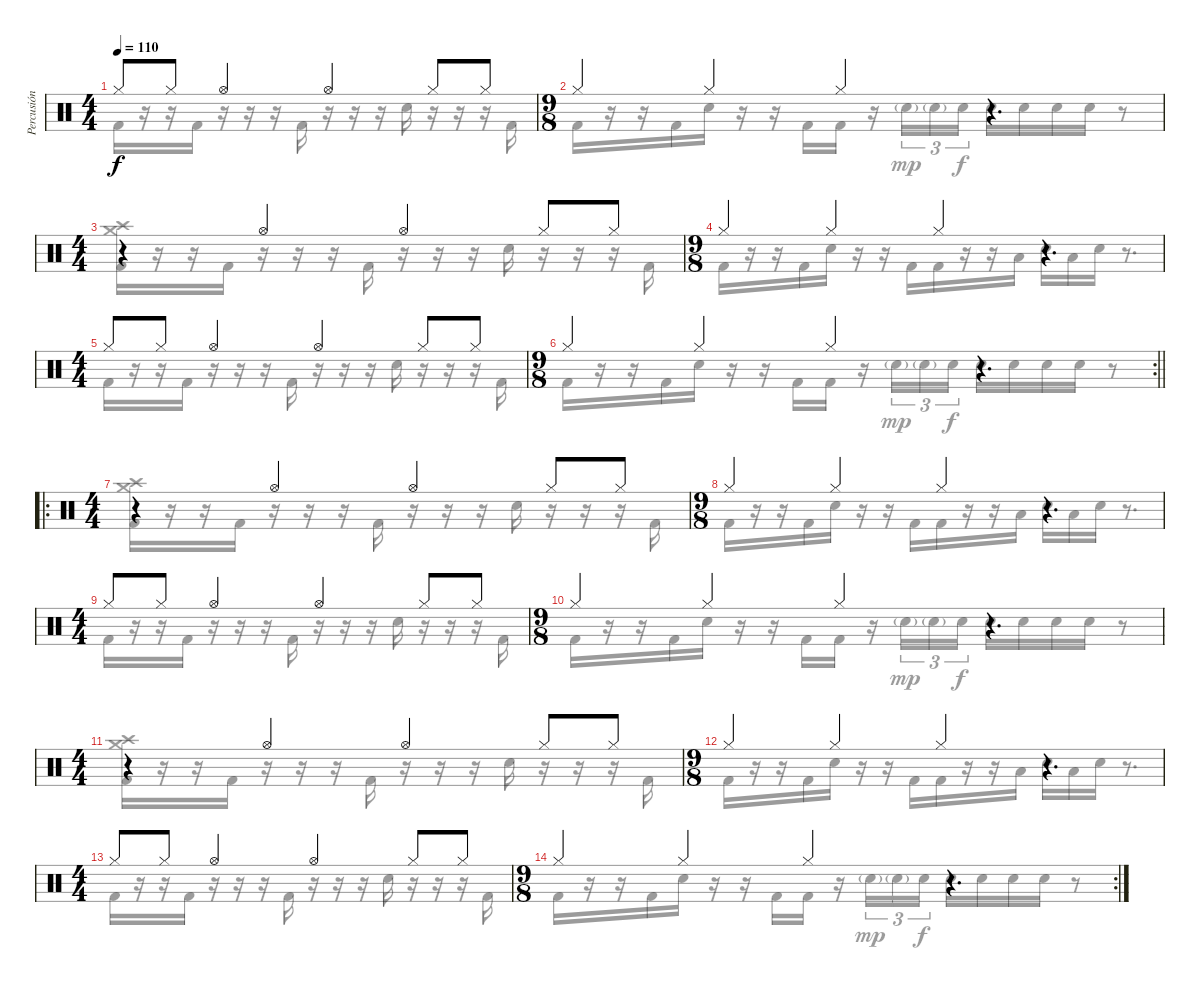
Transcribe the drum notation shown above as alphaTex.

\track ("Percusión" "Percusión") {instrument percussion}
\staff {score}
\articulation defaults
\voice
\ts (4 4)
\tempo 110
\clef neutral
\ks c "Hi-Hat (closed)".8{dy f} "Hi-Hat (closed)".8 "Hi-Hat (open)".4 "Hi-Hat (open)".4 "Hi-Hat (closed)".8 "Hi-Hat (closed)".8
|
\ts (9 8)
"Hi-Hat (closed)".4 "Hi-Hat (closed)".4 "Hi-Hat (closed)".4 r.4{d} |
\ts (4 4)
r.4 "Hi-Hat (open)".4 "Hi-Hat (open)".4 "Hi-Hat (closed)".8 "Hi-Hat (closed)".8 |
\ts (9 8)
"Hi-Hat (closed)".4 "Hi-Hat (closed)".4 "Hi-Hat (closed)".4 r.4{d} |
\ts (4 4)
"Hi-Hat (closed)".8 "Hi-Hat (closed)".8 "Hi-Hat (open)".4 "Hi-Hat (open)".4 "Hi-Hat (closed)".8 "Hi-Hat (closed)".8 |
\rc 2
\ts (9 8)
\barLineRight lightlight "Hi-Hat (closed)".4 "Hi-Hat (closed)".4 "Hi-Hat (closed)".4
r.4{d} |
\ro
\ts (4 4)
r.4 "Hi-Hat (open)".4 "Hi-Hat (open)".4 "Hi-Hat (closed)".8 "Hi-Hat (closed)".8 |
\ts (9 8)
"Hi-Hat (closed)".4 "Hi-Hat (closed)".4 "Hi-Hat (closed)".4 r.4{d} |
\ts (4 4)
"Hi-Hat (closed)".8 "Hi-Hat (closed)".8 "Hi-Hat (open)".4 "Hi-Hat (open)".4 "Hi-Hat (closed)".8 "Hi-Hat (closed)".8 |
\ts (9 8)
"Hi-Hat (closed)".4 "Hi-Hat (closed)".4 "Hi-Hat (closed)".4 r.4{d} |
\ts (4 4)
r.4 "Hi-Hat (open)".4 "Hi-Hat (open)".4 "Hi-Hat (closed)".8 "Hi-Hat (closed)".8 |
\ts (9 8)
"Hi-Hat (closed)".4 "Hi-Hat (closed)".4 "Hi-Hat (closed)".4 r.4{d} |
\ts (4 4)
"Hi-Hat (closed)".8 "Hi-Hat (closed)".8 "Hi-Hat (open)".4 "Hi-Hat (open)".4 "Hi-Hat (closed)".8 "Hi-Hat (closed)".8 |
\rc 2
\ts (9 8)
"Hi-Hat (closed)".4 "Hi-Hat (closed)".4 "Hi-Hat (closed)".4 r.4{d}
\voice
\clef neutral
\ottava regular
\simile none
\ks c "Kick (hit) 2".16{dy f}
r.16 r.16 "Kick (hit) 2".16 r.16 r.16 r.16 "Kick (hit) 2".16 r.16 r.16 r.16 "Snare (hit) 2".16 r.16 r.16 r.16 "Kick (hit) 2".16 |
"Kick (hit) 2".16 r.16 r.16 "Kick (hit) 2".16 "Snare (hit) 2".16 r.16 r.16 "Kick (hit) 2".16 "Kick (hit) 2".16 r.16 "Snare (hit) 2"{g}.16{tu (3 2) dy mp} "Snare (hit) 2"{g}.16{tu (3 2)} "Snare (hit) 2".16{tu (3 2) dy f} "Snare (hit) 2".16 "Snare (hit) 2".16 "Snare (hit) 2".16 "Snare (hit) 2".16 r.8 |
("Crash high (hit)" "Crash medium (hit)" "Kick (hit) 2").16 r.16 r.16 "Kick (hit) 2".16 r.16 r.16 r.16 "Kick (hit) 2".16 r.16 r.16 r.16 "Snare (hit) 2".16 r.16 r.16 r.16 "Kick (hit) 2".16 |
"Kick (hit) 2".16 r.16 r.16 "Kick (hit) 2".16 "Snare (hit) 2".16 r.16 r.16 "Kick (hit) 2".16 "Kick (hit) 2".16 r.16 r.16 "Low Tom (hit)".16 "Snare (hit) 2".16 "Low Tom (hit)".16 "Snare (hit) 2".16 r.8{d} |
"Kick (hit) 2".16 r.16 r.16 "Kick (hit) 2".16 r.16 r.16 r.16 "Kick (hit) 2".16 r.16 r.16 r.16 "Snare (hit) 2".16 r.16 r.16 r.16 "Kick (hit) 2".16 |
\barLineRight lightlight "Kick (hit) 2".16
r.16 r.16 "Kick (hit) 2".16 "Snare (hit) 2".16 r.16 r.16 "Kick (hit) 2".16 "Kick (hit) 2".16 r.16 "Snare (hit) 2"{g}.16{tu (3 2) dy mp} "Snare (hit) 2"{g}.16{tu (3 2)} "Snare (hit) 2".16{tu (3 2) dy f} "Snare (hit) 2".16 "Snare (hit) 2".16 "Snare (hit) 2".16 "Snare (hit) 2".16 r.8 |
("Crash high (hit)" "Crash medium (hit)" "Kick (hit) 2").16 r.16 r.16 "Kick (hit) 2".16 r.16 r.16 r.16 "Kick (hit) 2".16 r.16 r.16 r.16 "Snare (hit) 2".16 r.16 r.16 r.16 "Kick (hit) 2".16 |
"Kick (hit) 2".16 r.16 r.16 "Kick (hit) 2".16 "Snare (hit) 2".16 r.16 r.16 "Kick (hit) 2".16 "Kick (hit) 2".16 r.16 r.16 "Low Tom (hit)".16 "Snare (hit) 2".16 "Low Tom (hit)".16 "Snare (hit) 2".16 r.8{d} |
"Kick (hit) 2".16 r.16 r.16 "Kick (hit) 2".16 r.16 r.16 r.16 "Kick (hit) 2".16 r.16 r.16 r.16 "Snare (hit) 2".16 r.16 r.16 r.16 "Kick (hit) 2".16 |
"Kick (hit) 2".16 r.16 r.16 "Kick (hit) 2".16 "Snare (hit) 2".16 r.16 r.16 "Kick (hit) 2".16 "Kick (hit) 2".16 r.16 "Snare (hit) 2"{g}.16{tu (3 2) dy mp} "Snare (hit) 2"{g}.16{tu (3 2)} "Snare (hit) 2".16{tu (3 2) dy f} "Snare (hit) 2".16 "Snare (hit) 2".16 "Snare (hit) 2".16 "Snare (hit) 2".16 r.8 |
("Crash high (hit)" "Crash medium (hit)" "Kick (hit) 2").16 r.16 r.16 "Kick (hit) 2".16 r.16 r.16 r.16 "Kick (hit) 2".16 r.16 r.16 r.16 "Snare (hit) 2".16 r.16 r.16 r.16 "Kick (hit) 2".16 |
"Kick (hit) 2".16 r.16 r.16 "Kick (hit) 2".16 "Snare (hit) 2".16 r.16 r.16 "Kick (hit) 2".16 "Kick (hit) 2".16 r.16 r.16 "Low Tom (hit)".16 "Snare (hit) 2".16 "Low Tom (hit)".16 "Snare (hit) 2".16 r.8{d} |
"Kick (hit) 2".16 r.16 r.16 "Kick (hit) 2".16 r.16 r.16 r.16 "Kick (hit) 2".16 r.16 r.16 r.16 "Snare (hit) 2".16 r.16 r.16 r.16 "Kick (hit) 2".16 |
"Kick (hit) 2".16 r.16 r.16 "Kick (hit) 2".16 "Snare (hit) 2".16 r.16 r.16 "Kick (hit) 2".16 "Kick (hit) 2".16 r.16 "Snare (hit) 2"{g}.16{tu (3 2) dy mp} "Snare (hit) 2"{g}.16{tu (3 2)} "Snare (hit) 2".16{tu (3 2) dy f} "Snare (hit) 2".16 "Snare (hit) 2".16 "Snare (hit) 2".16 "Snare (hit) 2".16 r.8
